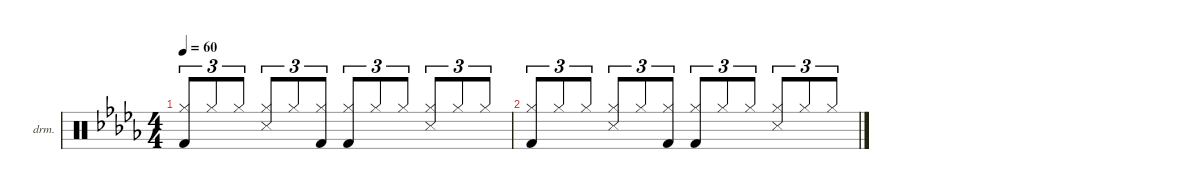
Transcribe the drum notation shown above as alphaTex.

\defaultSystemsLayout 4
\hideDynamics
\bracketExtendMode nobrackets
\firstSystemTrackNameOrientation horizontal
\otherSystemsTrackNameOrientation horizontal
\track ("Drumkit" "drm.") {defaultSystemsLayout 4 instrument percussion}
\staff {score}
\articulation defaults
\ts (4 4)
\tempo 60
\clef neutral
\ks db
("Hi-Hat (closed)"{acc forcenatural} "Kick (hit) 2"{acc forcenatural}).8{tu (3 2) dy mf beam Up} "Hi-Hat (closed)"{acc forcenatural}.8{tu (3 2) beam Up} "Hi-Hat (closed)"{acc forcenatural}.8{tu (3 2) beam Up} ("Hi-Hat (closed)"{acc forcenatural} "Snare (side stick) 3"{acc forcenatural}).8{tu (3 2) beam Up} "Hi-Hat (closed)"{acc forcenatural}.8{tu (3 2) beam Up} ("Hi-Hat (closed)"{acc forcenatural} "Kick (hit) 2"{acc forcenatural}).8{tu (3 2) beam Up} ("Hi-Hat (closed)"{acc forcenatural} "Kick (hit) 2"{acc forcenatural}).8{tu (3 2) beam Up} "Hi-Hat (closed)"{acc forcenatural}.8{tu (3 2) beam Up} "Hi-Hat (closed)"{acc forcenatural}.8{tu (3 2) beam Up} ("Hi-Hat (closed)"{acc forcenatural} "Snare (side stick) 3"{acc forcenatural}).8{tu (3 2) beam Up} "Hi-Hat (closed)"{acc forcenatural}.8{tu (3 2) beam Up} "Hi-Hat (closed)"{acc forcenatural}.8{tu (3 2) beam Up} |
("Hi-Hat (closed)"{acc forcenatural} "Kick (hit) 2"{acc forcenatural}).8{tu (3 2) beam Up} "Hi-Hat (closed)"{acc forcenatural}.8{tu (3 2) beam Up} "Hi-Hat (closed)"{acc forcenatural}.8{tu (3 2) beam Up} ("Hi-Hat (closed)"{acc forcenatural} "Snare (side stick) 3"{acc forcenatural}).8{tu (3 2) beam Up} "Hi-Hat (closed)"{acc forcenatural}.8{tu (3 2) beam Up} ("Hi-Hat (closed)"{acc forcenatural} "Kick (hit) 2"{acc forcenatural}).8{tu (3 2) beam Up} ("Hi-Hat (closed)"{acc forcenatural} "Kick (hit) 2"{acc forcenatural}).8{tu (3 2) beam Up} "Hi-Hat (closed)"{acc forcenatural}.8{tu (3 2) beam Up} "Hi-Hat (closed)"{acc forcenatural}.8{tu (3 2) beam Up} ("Hi-Hat (closed)"{acc forcenatural} "Snare (side stick) 3"{acc forcenatural}).8{tu (3 2) beam Up} "Hi-Hat (closed)"{acc forcenatural}.8{tu (3 2) beam Up} "Hi-Hat (closed)"{acc forcenatural}.8{tu (3 2) beam Up}
